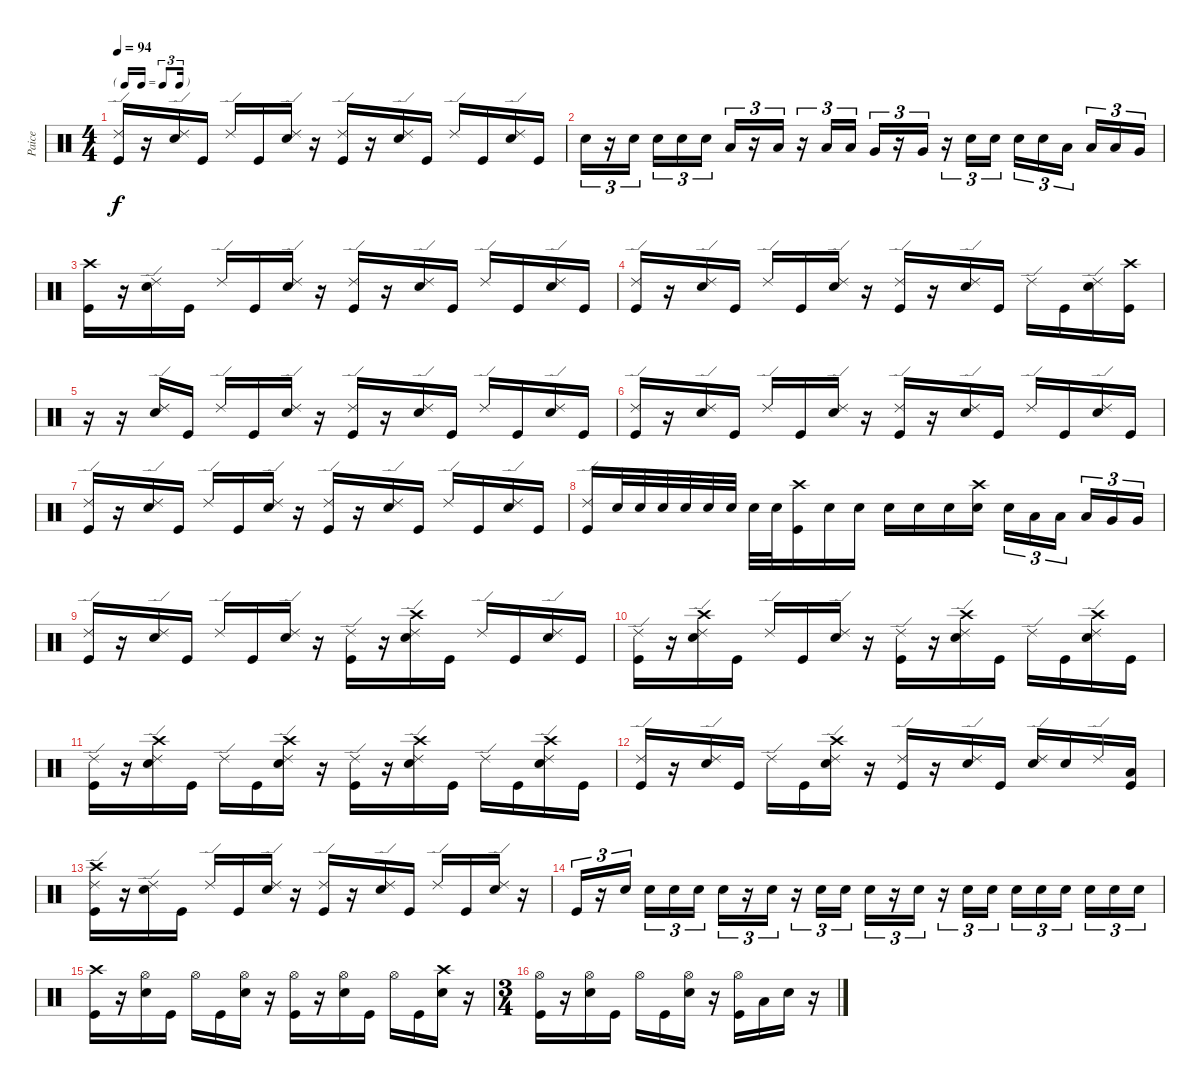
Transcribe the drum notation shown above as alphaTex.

\track ("Paice" "Paice") {instrument percussion}
\staff {score}
\articulation defaults
\ts (4 4)
\tf triplet16th
\tempo 94
\clef neutral
\ks c
("Ride (edge) 2" "Kick (hit)").16{dy f} r.16 ("Ride (edge) 2" "Snare (hit) 2").16 "Kick (hit)".16 "Ride (edge) 2".16 "Kick (hit)".16 ("Ride (edge) 2" "Snare (hit) 2").16 r.16 ("Ride (edge) 2" "Kick (hit)").16 r.16 ("Ride (edge) 2" "Snare (hit) 2").16 "Kick (hit)".16 "Ride (edge) 2".16 "Kick (hit)".16 ("Ride (edge) 2" "Snare (hit) 2").16 "Kick (hit)".16 |
"Snare (hit) 2".16{tu (3 2)} r.16{tu (3 2)} "Snare (hit) 2".16{tu (3 2) beam splitsecondary} "Snare (hit) 2".16{tu (3 2)} "Snare (hit) 2".16{tu (3 2)} "Snare (hit) 2".16{tu (3 2)} "Low Tom (hit)".16{tu (3 2)} r.16{tu (3 2)} "Low Tom (hit)".16{tu (3 2)} r.16{tu (3 2)} "Low Tom (hit)".16{tu (3 2)} "Low Tom (hit)".16{tu (3 2)} "Very Low Tom (hit)".16{tu (3 2)} r.16{tu (3 2)} "Very Low Tom (hit)".16{tu (3 2)} r.16{tu (3 2)} "Snare (hit) 2".16{tu (3 2)} "Snare (hit) 2".16{tu (3 2)} "Snare (hit) 2".16{tu (3 2)} "Snare (hit) 2".16{tu (3 2)} "Low Tom (hit)".16{tu (3 2) beam splitsecondary} "Low Tom (hit)".16{tu (3 2)} "Low Tom (hit)".16{tu (3 2)} "Very Low Tom (hit)".16{tu (3 2)} |
("Crash high (hit)" "Kick (hit)").16 r.16 ("Ride (edge) 2" "Snare (hit) 2").16 "Kick (hit)".16 "Ride (edge) 2".16 "Kick (hit)".16 ("Ride (edge) 2" "Snare (hit) 2").16 r.16 ("Ride (edge) 2" "Kick (hit)").16 r.16 ("Ride (edge) 2" "Snare (hit) 2").16 "Kick (hit)".16 "Ride (edge) 2".16 "Kick (hit)".16 ("Ride (edge) 2" "Snare (hit) 2").16 "Kick (hit)".16 |
("Ride (edge) 2" "Kick (hit)").16 r.16 ("Ride (edge) 2" "Snare (hit) 2").16 "Kick (hit)".16 "Ride (edge) 2".16 "Kick (hit)".16 ("Ride (edge) 2" "Snare (hit) 2").16 r.16 ("Ride (edge) 2" "Kick (hit)").16 r.16 ("Ride (edge) 2" "Snare (hit) 2").16 "Kick (hit)".16 "Ride (edge) 2".16 "Kick (hit)".16 ("Ride (edge) 2" "Snare (hit) 2").16 ("Crash high (hit)" "Kick (hit)").16 |
r.16 r.16 ("Ride (edge) 2" "Snare (hit) 2").16 "Kick (hit)".16 "Ride (edge) 2".16 "Kick (hit)".16 ("Ride (edge) 2" "Snare (hit) 2").16 r.16 ("Ride (edge) 2" "Kick (hit)").16 r.16 ("Ride (edge) 2" "Snare (hit) 2").16 "Kick (hit)".16 "Ride (edge) 2".16 "Kick (hit)".16 ("Ride (edge) 2" "Snare (hit) 2").16 "Kick (hit)".16 |
("Ride (edge) 2" "Kick (hit)").16 r.16 ("Ride (edge) 2" "Snare (hit) 2").16 "Kick (hit)".16 "Ride (edge) 2".16 "Kick (hit)".16 ("Ride (edge) 2" "Snare (hit) 2").16 r.16 ("Ride (edge) 2" "Kick (hit)").16 r.16 ("Ride (edge) 2" "Snare (hit) 2").16 "Kick (hit)".16 "Ride (edge) 2".16 "Kick (hit)".16 ("Ride (edge) 2" "Snare (hit) 2").16 "Kick (hit)".16 |
("Ride (edge) 2" "Kick (hit)").16 r.16 ("Ride (edge) 2" "Snare (hit) 2").16 "Kick (hit)".16 "Ride (edge) 2".16 "Kick (hit)".16 ("Ride (edge) 2" "Snare (hit) 2").16 r.16 ("Ride (edge) 2" "Kick (hit)").16 r.16 ("Ride (edge) 2" "Snare (hit) 2").16 "Kick (hit)".16 "Ride (edge) 2".16 "Kick (hit)".16 ("Ride (edge) 2" "Snare (hit) 2").16 "Kick (hit)".16 |
("Ride (edge) 2" "Kick (hit)").16 "Snare (hit) 2".32 "Snare (hit) 2".32 "Snare (hit) 2".32 "Snare (hit) 2".32 "Snare (hit) 2".32 "Snare (hit) 2".32 "Snare (hit) 2".32 "Snare (hit) 2".32 ("Crash high (hit)" "Kick (hit)").16 "Snare (hit) 2".16 "Snare (hit) 2".16 "Snare (hit) 2".16 "Snare (hit) 2".16 "Snare (hit) 2".16 ("Crash high (hit)" "Snare (hit) 2").16 "Snare (hit) 2".16{tu (3 2)} "Low Tom (hit)".16{tu (3 2)} "Low Tom (hit)".16{tu (3 2) beam splitsecondary} "Low Tom (hit)".16{tu (3 2)} "Very Low Tom (hit)".16{tu (3 2)} "Very Low Tom (hit)".16{tu (3 2)} |
("Ride (edge) 2" "Kick (hit)").16 r.16 ("Ride (edge) 2" "Snare (hit) 2").16 "Kick (hit)".16 "Ride (edge) 2".16 "Kick (hit)".16 ("Ride (edge) 2" "Snare (hit) 2").16 r.16 ("Ride (edge) 2" "Kick (hit)").16 r.16 ("Crash high (hit)" "Ride (edge) 2" "Snare (hit) 2").16 "Kick (hit)".16 "Ride (edge) 2".16 "Kick (hit)".16 ("Ride (edge) 2" "Snare (hit) 2").16 "Kick (hit)".16 |
("Ride (edge) 2" "Kick (hit)").16 r.16 ("Crash high (hit)" "Ride (edge) 2" "Snare (hit) 2").16 "Kick (hit)".16 "Ride (edge) 2".16 "Kick (hit)".16 ("Ride (edge) 2" "Snare (hit) 2").16 r.16 ("Ride (edge) 2" "Kick (hit)").16 r.16 ("Crash high (hit)" "Ride (edge) 2" "Snare (hit) 2").16 "Kick (hit)".16 "Ride (edge) 2".16 "Kick (hit)".16 ("Crash high (hit)" "Ride (edge) 2" "Snare (hit) 2").16 "Kick (hit)".16 |
("Ride (edge) 2" "Kick (hit)").16 r.16 ("Crash high (hit)" "Ride (edge) 2" "Snare (hit) 2").16 "Kick (hit)".16 "Ride (edge) 2".16 "Kick (hit)".16 ("Crash high (hit)" "Ride (edge) 2" "Snare (hit) 2").16 r.16 ("Ride (edge) 2" "Kick (hit)").16 r.16 ("Crash high (hit)" "Ride (edge) 2" "Snare (hit) 2").16 "Kick (hit)".16 "Ride (edge) 2".16 "Kick (hit)".16 ("Crash high (hit)" "Ride (edge) 2" "Snare (hit) 2").16 "Kick (hit)".16 |
("Ride (edge) 2" "Kick (hit)").16 r.16 ("Ride (edge) 2" "Snare (hit) 2").16 "Kick (hit)".16 "Ride (edge) 2".16 "Kick (hit)".16 ("Crash high (hit)" "Ride (edge) 2" "Snare (hit) 2").16 r.16 ("Ride (edge) 2" "Kick (hit)").16 r.16 ("Ride (edge) 2" "Snare (hit) 2").16 "Kick (hit)".16 ("Ride (edge) 2" "Snare (hit) 2").16 "Snare (hit) 2".16 "Ride (edge) 2".16 ("Low Floor Tom (hit)" "Kick (hit)").16 |
("Crash high (hit)" "Ride (edge) 2" "Kick (hit)").16 r.16 ("Ride (edge) 2" "Snare (hit) 2").16 "Kick (hit)".16 "Ride (edge) 2".16 "Kick (hit)".16 ("Ride (edge) 2" "Snare (hit) 2").16 r.16 ("Ride (edge) 2" "Kick (hit)").16 r.16 ("Ride (edge) 2" "Snare (hit) 2").16 "Kick (hit)".16 "Ride (edge) 2".16 "Kick (hit)".16 ("Ride (edge) 2" "Snare (hit) 2").16 r.16 |
"Kick (hit)".16{tu (3 2)} r.16{tu (3 2)} "Snare (hit) 2".16{tu (3 2) beam splitsecondary} "Snare (hit) 2".16{tu (3 2)} "Snare (hit) 2".16{tu (3 2)} "Snare (hit) 2".16{tu (3 2)} "Snare (hit) 2".16{tu (3 2)} r.16{tu (3 2)} "Snare (hit) 2".16{tu (3 2)} r.16{tu (3 2)} "Snare (hit) 2".16{tu (3 2)} "Snare (hit) 2".16{tu (3 2)} "Snare (hit) 2".16{tu (3 2)} r.16{tu (3 2)} "Snare (hit) 2".16{tu (3 2)} r.16{tu (3 2)} "Snare (hit) 2".16{tu (3 2)} "Snare (hit) 2".16{tu (3 2)} "Snare (hit) 2".16{tu (3 2)} "Snare (hit) 2".16{tu (3 2)} "Snare (hit) 2".16{tu (3 2) beam splitsecondary} "Snare (hit) 2".16{tu (3 2)} "Snare (hit) 2".16{tu (3 2)} "Snare (hit) 2".16{tu (3 2)} |
("Crash high (hit)" "Kick (hit)").16 r.16 ("Hi-Hat (open)" "Snare (hit) 2").16 "Kick (hit)".16 "Hi-Hat (open)".16 "Kick (hit)".16 ("Hi-Hat (open)" "Snare (hit) 2").16 r.16 ("Hi-Hat (open)" "Kick (hit)").16 r.16 ("Hi-Hat (open)" "Snare (hit) 2").16 "Kick (hit)".16 "Hi-Hat (open)".16 "Kick (hit)".16 ("Crash high (hit)" "Snare (hit) 2").16 r.16 |
\ts (3 4)
("Hi-Hat (open)" "Kick (hit)").16 r.16 ("Hi-Hat (open)" "Snare (hit) 2").16 "Kick (hit)".16 "Hi-Hat (open)".16 "Kick (hit)".16 ("Hi-Hat (open)" "Snare (hit) 2").16 r.16 ("Hi-Hat (open)" "Kick (hit)").16 "Low Tom (hit)".16 "Snare (hit) 2".16 r.16
